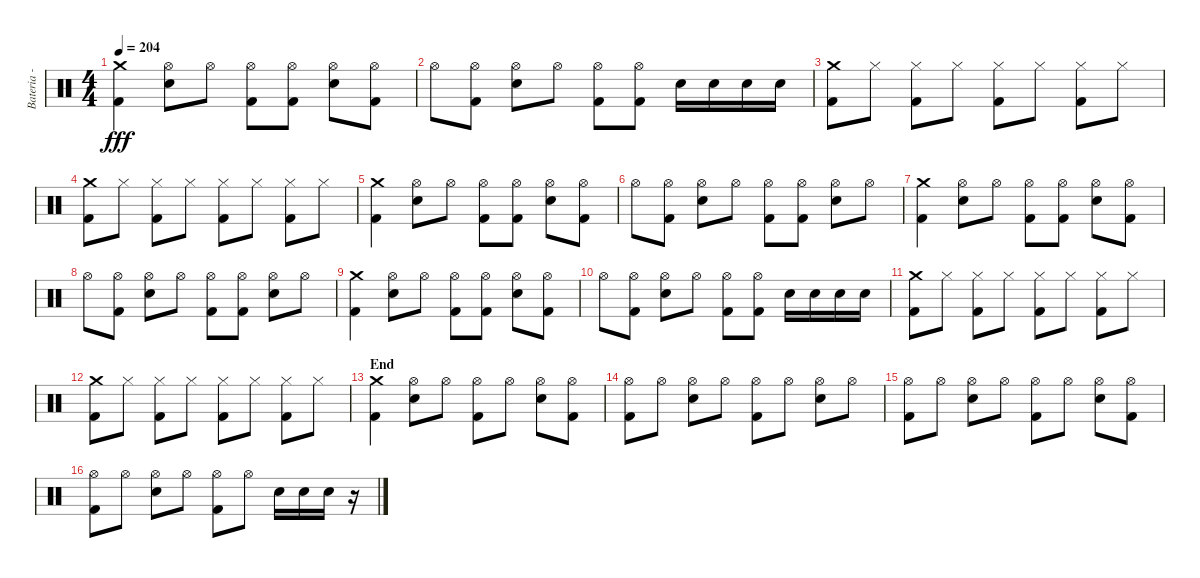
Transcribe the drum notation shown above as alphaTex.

\track ("Bateria - Larzon" "Bateria - ") {instrument percussion}
\staff {score}
\articulation defaults
\ts (4 4)
\tempo 204
\clef neutral
\ks c
("Crash medium (hit)" "Kick (hit) 2").4{dy fff} ("Hi-Hat (open)" "Electric Snare (hit)").8 "Hi-Hat (open)".8 ("Hi-Hat (open)" "Kick (hit) 2").8 ("Hi-Hat (open)" "Kick (hit) 2").8 ("Hi-Hat (open)" "Electric Snare (hit)").8 ("Hi-Hat (open)" "Kick (hit) 2").8 |
"Hi-Hat (open)".8 ("Hi-Hat (open)" "Kick (hit) 2").8 ("Hi-Hat (open)" "Electric Snare (hit)").8 "Hi-Hat (open)".8 ("Hi-Hat (open)" "Kick (hit) 2").8 ("Hi-Hat (open)" "Kick (hit) 2").8 "Electric Snare (hit)".16 "Electric Snare (hit)".16 "Electric Snare (hit)".16 "Electric Snare (hit)".16 |
("Kick (hit) 2" "Crash medium (hit)").8 "Hi-Hat (closed)".8 ("Kick (hit) 2" "Hi-Hat (closed)").8 "Hi-Hat (closed)".8 ("Kick (hit) 2" "Hi-Hat (closed)").8 "Hi-Hat (closed)".8 ("Kick (hit) 2" "Hi-Hat (closed)").8 "Hi-Hat (closed)".8 |
("Kick (hit) 2" "Crash medium (hit)").8 "Hi-Hat (closed)".8 ("Kick (hit) 2" "Hi-Hat (closed)").8 "Hi-Hat (closed)".8 ("Kick (hit) 2" "Hi-Hat (closed)").8 "Hi-Hat (closed)".8 ("Kick (hit) 2" "Hi-Hat (closed)").8 "Hi-Hat (closed)".8 |
("Kick (hit) 2" "Crash medium (hit)").4 ("Hi-Hat (open)" "Electric Snare (hit)").8 "Hi-Hat (open)".8 ("Hi-Hat (open)" "Kick (hit) 2").8 ("Hi-Hat (open)" "Kick (hit) 2").8 ("Hi-Hat (open)" "Electric Snare (hit)").8 ("Hi-Hat (open)" "Kick (hit) 2").8 |
"Hi-Hat (open)".8 ("Hi-Hat (open)" "Kick (hit) 2").8 ("Hi-Hat (open)" "Electric Snare (hit)").8 "Hi-Hat (open)".8 ("Hi-Hat (open)" "Kick (hit) 2").8 ("Hi-Hat (open)" "Kick (hit) 2").8 ("Hi-Hat (open)" "Electric Snare (hit)").8 "Hi-Hat (open)".8 |
("Crash medium (hit)" "Kick (hit) 2").4 ("Hi-Hat (open)" "Electric Snare (hit)").8 "Hi-Hat (open)".8 ("Hi-Hat (open)" "Kick (hit) 2").8 ("Hi-Hat (open)" "Kick (hit) 2").8 ("Hi-Hat (open)" "Electric Snare (hit)").8 ("Hi-Hat (open)" "Kick (hit) 2").8 |
"Hi-Hat (open)".8 ("Hi-Hat (open)" "Kick (hit) 2").8 ("Hi-Hat (open)" "Electric Snare (hit)").8 "Hi-Hat (open)".8 ("Hi-Hat (open)" "Kick (hit) 2").8 ("Hi-Hat (open)" "Kick (hit) 2").8 ("Electric Snare (hit)" "Hi-Hat (open)").8 "Hi-Hat (open)".8 |
("Crash medium (hit)" "Kick (hit) 2").4 ("Hi-Hat (open)" "Electric Snare (hit)").8 "Hi-Hat (open)".8 ("Hi-Hat (open)" "Kick (hit) 2").8 ("Hi-Hat (open)" "Kick (hit) 2").8 ("Hi-Hat (open)" "Electric Snare (hit)").8 ("Hi-Hat (open)" "Kick (hit) 2").8 |
"Hi-Hat (open)".8 ("Hi-Hat (open)" "Kick (hit) 2").8 ("Hi-Hat (open)" "Electric Snare (hit)").8 "Hi-Hat (open)".8 ("Hi-Hat (open)" "Kick (hit) 2").8 ("Hi-Hat (open)" "Kick (hit) 2").8 "Electric Snare (hit)".16 "Electric Snare (hit)".16 "Electric Snare (hit)".16 "Electric Snare (hit)".16 |
("Kick (hit) 2" "Crash medium (hit)").8 "Hi-Hat (closed)".8 ("Kick (hit) 2" "Hi-Hat (closed)").8 "Hi-Hat (closed)".8 ("Kick (hit) 2" "Hi-Hat (closed)").8 "Hi-Hat (closed)".8 ("Kick (hit) 2" "Hi-Hat (closed)").8 "Hi-Hat (closed)".8 |
("Kick (hit) 2" "Crash medium (hit)").8 "Hi-Hat (closed)".8 ("Kick (hit) 2" "Hi-Hat (closed)").8 "Hi-Hat (closed)".8 ("Kick (hit) 2" "Hi-Hat (closed)").8 "Hi-Hat (closed)".8 ("Kick (hit) 2" "Hi-Hat (closed)").8 "Hi-Hat (closed)".8 |
\section ("" "End")
("Crash medium (hit)" "Kick (hit) 2").4 ("Hi-Hat (open)" "Electric Snare (hit)").8 "Hi-Hat (open)".8 ("Kick (hit) 2" "Hi-Hat (open)").8 "Hi-Hat (open)".8 ("Electric Snare (hit)" "Hi-Hat (open)").8 ("Kick (hit) 2" "Hi-Hat (open)").8 |
("Kick (hit) 2" "Hi-Hat (open)").8 "Hi-Hat (open)".8 ("Electric Snare (hit)" "Hi-Hat (open)").8 "Hi-Hat (open)".8 ("Kick (hit) 2" "Hi-Hat (open)").8 "Hi-Hat (open)".8 ("Electric Snare (hit)" "Hi-Hat (open)").8 "Hi-Hat (open)".8 |
("Kick (hit) 2" "Hi-Hat (open)").8 "Hi-Hat (open)".8 ("Electric Snare (hit)" "Hi-Hat (open)").8 "Hi-Hat (open)".8 ("Kick (hit) 2" "Hi-Hat (open)").8 "Hi-Hat (open)".8 ("Electric Snare (hit)" "Hi-Hat (open)").8 ("Kick (hit) 2" "Hi-Hat (open)").8 |
("Kick (hit) 2" "Hi-Hat (open)").8 "Hi-Hat (open)".8 ("Electric Snare (hit)" "Hi-Hat (open)").8 "Hi-Hat (open)".8 ("Kick (hit) 2" "Hi-Hat (open)").8 "Hi-Hat (open)".8 "Electric Snare (hit)".16 "Electric Snare (hit)".16 "Electric Snare (hit)".16 r.16
